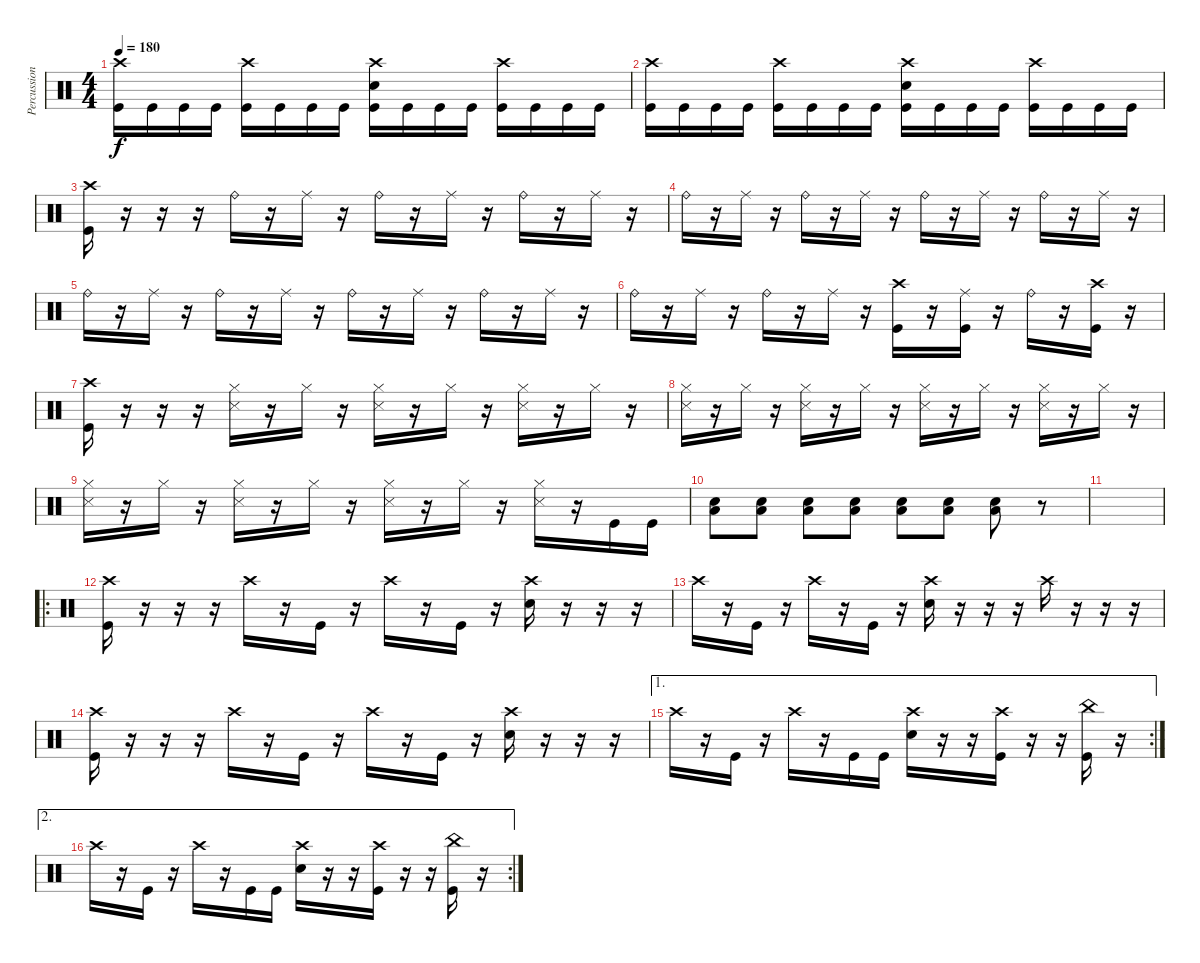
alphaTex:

\track ("Percussion" "Percussion") {instrument percussion}
\staff {score}
\articulation defaults
\ts (4 4)
\tempo 180
\clef neutral
\ks c
("Crash high (hit)" "Kick (hit)").16{dy f} "Kick (hit)".16 "Kick (hit)".16 "Kick (hit)".16 ("Crash high (hit)" "Kick (hit)").16 "Kick (hit)".16 "Kick (hit)".16 "Kick (hit)".16 ("Crash high (hit)" "Electric Snare (hit)" "Kick (hit)").16 "Kick (hit)".16 "Kick (hit)".16 "Kick (hit)".16 ("Crash high (hit)" "Kick (hit)").16 "Kick (hit)".16 "Kick (hit)".16 "Kick (hit)".16 |
("Crash high (hit)" "Kick (hit)").16 "Kick (hit)".16 "Kick (hit)".16 "Kick (hit)".16 ("Crash high (hit)" "Kick (hit)").16 "Kick (hit)".16 "Kick (hit)".16 "Kick (hit)".16 ("Crash high (hit)" "Electric Snare (hit)" "Kick (hit)").16 "Kick (hit)".16 "Kick (hit)".16 "Kick (hit)".16 ("Crash high (hit)" "Kick (hit)").16 "Kick (hit)".16 "Kick (hit)".16 "Kick (hit)".16 |
("Crash high (hit)" "Kick (hit)").16 r.16 r.16 r.16 "Ride (bell)".16 r.16 "Ride (middle)".16 r.16 "Ride (bell)".16 r.16 "Ride (middle)".16 r.16 "Ride (bell)".16 r.16 "Ride (middle)".16 r.16 |
"Ride (bell)".16 r.16 "Ride (middle)".16 r.16 "Ride (bell)".16 r.16 "Ride (middle)".16 r.16 "Ride (bell)".16 r.16 "Ride (middle)".16 r.16 "Ride (bell)".16 r.16 "Ride (middle)".16 r.16 |
"Ride (bell)".16 r.16 "Ride (middle)".16 r.16 "Ride (bell)".16 r.16 "Ride (middle)".16 r.16 "Ride (bell)".16 r.16 "Ride (middle)".16 r.16 "Ride (bell)".16 r.16 "Ride (middle)".16 r.16 |
"Ride (bell)".16 r.16 "Ride (middle)".16 r.16 "Ride (bell)".16 r.16 "Ride (middle)".16 r.16 ("Kick (hit)" "Crash high (hit)").16 r.16 ("Kick (hit)" "Ride (middle)").16 r.16 "Ride (bell)".16 r.16 ("Kick (hit)" "Crash high (hit)").16 r.16 |
("Kick (hit)" "Crash high (hit)").16 r.16 r.16 r.16 ("Hi-Hat (closed)" "Metronome (hit)").16 r.16 "Hi-Hat (closed)".16 r.16 ("Hi-Hat (closed)" "Metronome (hit)").16 r.16 "Hi-Hat (closed)".16 r.16 ("Hi-Hat (closed)" "Metronome (hit)").16 r.16 "Hi-Hat (closed)".16 r.16 |
("Hi-Hat (closed)" "Metronome (hit)").16 r.16 "Hi-Hat (closed)".16 r.16 ("Hi-Hat (closed)" "Metronome (hit)").16 r.16 "Hi-Hat (closed)".16 r.16 ("Hi-Hat (closed)" "Metronome (hit)").16 r.16 "Hi-Hat (closed)".16 r.16 ("Hi-Hat (closed)" "Metronome (hit)").16 r.16 "Hi-Hat (closed)".16 r.16 |
("Hi-Hat (closed)" "Metronome (hit)").16 r.16 "Hi-Hat (closed)".16 r.16 ("Hi-Hat (closed)" "Metronome (hit)").16 r.16 "Hi-Hat (closed)".16 r.16 ("Hi-Hat (closed)" "Metronome (hit)").16 r.16 "Hi-Hat (closed)".16 r.16 ("Hi-Hat (closed)" "Metronome (hit)").16 r.16 "Kick (hit)".16 "Kick (hit)".16 |
("Electric Snare (hit)" "Low Tom (hit)").8 ("Electric Snare (hit)" "Low Tom (hit)").8 ("Electric Snare (hit)" "Low Tom (hit)").8 ("Electric Snare (hit)" "Low Tom (hit)").8 ("Electric Snare (hit)" "Low Tom (hit)").8 ("Electric Snare (hit)" "Low Tom (hit)").8 ("Electric Snare (hit)" "Low Tom (hit)").8 r.8 |
|
\ro
("Crash high (hit)" "Kick (hit)").16 r.16 r.16 r.16 "Crash high (hit)".16 r.16 "Kick (hit)".16 r.16 "Crash high (hit)".16 r.16 "Kick (hit)".16 r.16 ("Crash high (hit)" "Electric Snare (hit)").16 r.16 r.16 r.16 |
"Crash high (hit)".16 r.16 "Kick (hit)".16 r.16 "Crash high (hit)".16 r.16 "Kick (hit)".16 r.16 ("Crash high (hit)" "Electric Snare (hit)").16 r.16 r.16 r.16 "Crash high (hit)".16 r.16 r.16 r.16 |
("Crash high (hit)" "Kick (hit)").16 r.16 r.16 r.16 "Crash high (hit)".16 r.16 "Kick (hit)".16 r.16 "Crash high (hit)".16 r.16 "Kick (hit)".16 r.16 ("Crash high (hit)" "Electric Snare (hit)").16 r.16 r.16 r.16 |
\ae 1
\rc 2 "Crash high (hit)".16
r.16 "Kick (hit)".16 r.16 "Crash high (hit)".16 r.16 "Kick (hit)".16 "Kick (hit)".16 ("Crash high (hit)" "Electric Snare (hit)").16 r.16 r.16 ("Crash high (hit)" "Kick (hit)").16 r.16 r.16 ("China (hit)" "Kick (hit)").16 r.16 |
\ae 2
\rc 2 "Crash high (hit)".16
r.16 "Kick (hit)".16 r.16 "Crash high (hit)".16 r.16 "Kick (hit)".16 "Kick (hit)".16 ("Crash high (hit)" "Electric Snare (hit)").16 r.16 r.16 ("Crash high (hit)" "Kick (hit)").16 r.16 r.16 ("China (hit)" "Kick (hit)").16 r.16
